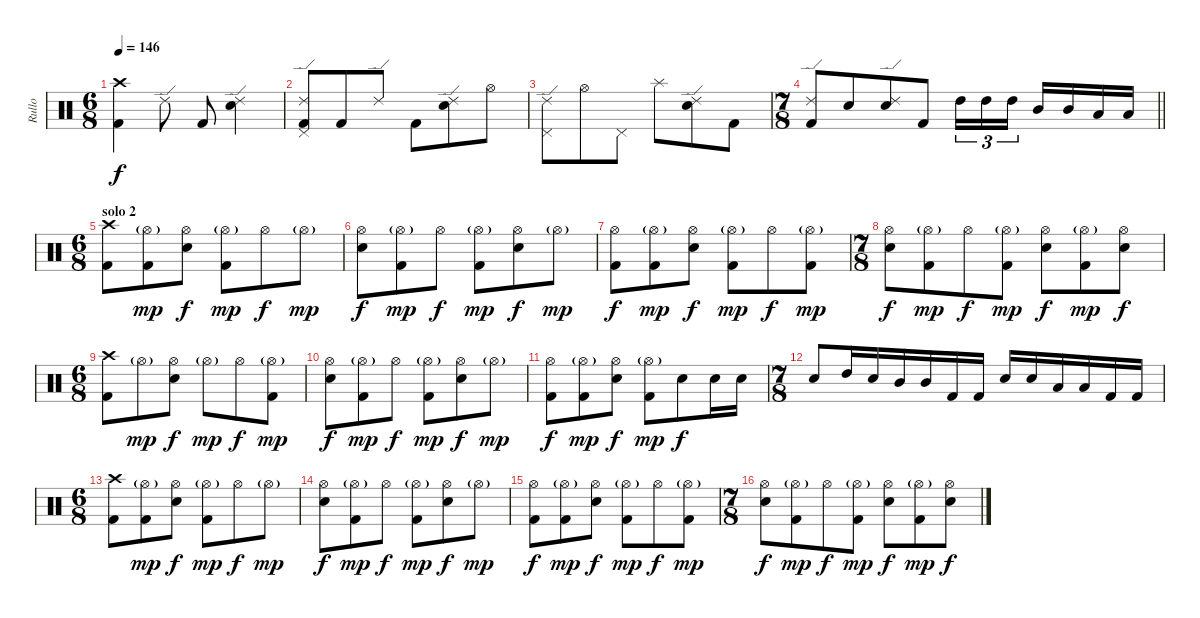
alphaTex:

\track ("Rullo" "Rullo") {instrument percussion}
\staff {score}
\articulation defaults
\ts (6 8)
\tempo 146
\clef neutral
\ks c
("Crash high (hit)" "Kick (hit) 2").4{dy f} "Ride (edge) 2".8 "Kick (hit) 2".8 ("Ride (edge) 2" "Electric Snare (hit)").4 |
("Ride (edge) 2" "Pedal Hi-Hat (hit)" "Kick (hit) 2").8 "Kick (hit) 2".8 "Ride (edge) 2".8 "Kick (hit) 2".8 ("Ride (edge) 2" "Electric Snare (hit)").8 "Hi-Hat (open)".8 |
("Ride (edge) 2" "Pedal Hi-Hat (hit)").8 "Hi-Hat (open)".8 "Pedal Hi-Hat (hit)".8 "Splash (hit)".8 ("Ride (edge) 2" "Electric Snare (hit)").8 "Kick (hit) 2".8 |
\ts (7 8)
\barLineRight lightlight
("Ride (edge) 2" "Kick (hit) 2").8 "Electric Snare (hit)".8 ("Ride (edge) 2" "Electric Snare (hit)").8 "Kick (hit) 2".8 "High Tom (hit)".16{tu (3 2)} "High Tom (hit)".16{tu (3 2)} "High Tom (hit)".16{tu (3 2)} "Mid Tom (hit)".16 "Mid Tom (hit)".16 "Low Tom (hit)".16 "Low Tom (hit)".16 |
\ts (6 8)
\section ("" "solo 2")
("Crash high (hit)" "Kick (hit) 2").8 ("Hi-Hat (open)"{g} "Kick (hit) 2").8{dy mp} ("Hi-Hat (open)" "Electric Snare (hit)").8{dy f} ("Hi-Hat (open)"{g} "Kick (hit) 2").8{dy mp} "Hi-Hat (open)".8{dy f} "Hi-Hat (open)"{g}.8{dy mp} |
("Hi-Hat (open)" "Electric Snare (hit)").8{dy f} ("Hi-Hat (open)"{g} "Kick (hit) 2").8{dy mp} "Hi-Hat (open)".8{dy f} ("Hi-Hat (open)"{g} "Kick (hit) 2").8{dy mp} ("Hi-Hat (open)" "Electric Snare (hit)").8{dy f} "Hi-Hat (open)"{g}.8{dy mp} |
("Hi-Hat (open)" "Kick (hit) 2").8{dy f} ("Hi-Hat (open)"{g} "Kick (hit) 2").8{dy mp} ("Hi-Hat (open)" "Electric Snare (hit)").8{dy f} ("Hi-Hat (open)"{g} "Kick (hit) 2").8{dy mp} "Hi-Hat (open)".8{dy f} ("Hi-Hat (open)"{g} "Kick (hit) 2").8{dy mp} |
\ts (7 8)
("Hi-Hat (open)" "Electric Snare (hit)").8{dy f} ("Hi-Hat (open)"{g} "Kick (hit) 2").8{dy mp} "Hi-Hat (open)".8{dy f} ("Hi-Hat (open)"{g} "Kick (hit) 2").8{dy mp} ("Hi-Hat (open)" "Electric Snare (hit)").8{dy f} ("Hi-Hat (open)"{g} "Kick (hit) 2").8{dy mp} ("Hi-Hat (open)" "Electric Snare (hit)").8{dy f} |
\ts (6 8)
("Crash high (hit)" "Kick (hit) 2").8 "Hi-Hat (open)"{g}.8{dy mp} ("Hi-Hat (open)" "Electric Snare (hit)").8{dy f} "Hi-Hat (open)"{g}.8{dy mp} "Hi-Hat (open)".8{dy f} ("Hi-Hat (open)"{g} "Kick (hit) 2").8{dy mp} |
("Hi-Hat (open)" "Electric Snare (hit)").8{dy f} ("Hi-Hat (open)"{g} "Kick (hit) 2").8{dy mp} "Hi-Hat (open)".8{dy f} ("Hi-Hat (open)"{g} "Kick (hit) 2").8{dy mp} ("Hi-Hat (open)" "Electric Snare (hit)").8{dy f} "Hi-Hat (open)"{g}.8{dy mp} |
("Hi-Hat (open)" "Kick (hit) 2").8{dy f} ("Hi-Hat (open)"{g} "Kick (hit) 2").8{dy mp} ("Hi-Hat (open)" "Electric Snare (hit)").8{dy f} ("Hi-Hat (open)"{g} "Kick (hit) 2").8{dy mp} "Electric Snare (hit)".8{dy f} "Electric Snare (hit)".16 "Electric Snare (hit)".16 |
\ts (7 8)
"Electric Snare (hit)".8 "High Tom (hit)".16 "Electric Snare (hit)".16 "Mid Tom (hit)".16 "Mid Tom (hit)".16 "Kick (hit) 2".16 "Kick (hit) 2".16 "Electric Snare (hit)".16 "Electric Snare (hit)".16 "Low Tom (hit)".16 "Low Tom (hit)".16 "Kick (hit) 2".16 "Kick (hit) 2".16 |
\ts (6 8)
("Crash high (hit)" "Kick (hit) 2").8 ("Hi-Hat (open)"{g} "Kick (hit) 2").8{dy mp} ("Hi-Hat (open)" "Electric Snare (hit)").8{dy f} ("Hi-Hat (open)"{g} "Kick (hit) 2").8{dy mp} "Hi-Hat (open)".8{dy f} "Hi-Hat (open)"{g}.8{dy mp} |
("Hi-Hat (open)" "Electric Snare (hit)").8{dy f} ("Hi-Hat (open)"{g} "Kick (hit) 2").8{dy mp} "Hi-Hat (open)".8{dy f} ("Hi-Hat (open)"{g} "Kick (hit) 2").8{dy mp} ("Hi-Hat (open)" "Electric Snare (hit)").8{dy f} "Hi-Hat (open)"{g}.8{dy mp} |
("Hi-Hat (open)" "Kick (hit) 2").8{dy f} ("Hi-Hat (open)"{g} "Kick (hit) 2").8{dy mp} ("Hi-Hat (open)" "Electric Snare (hit)").8{dy f} ("Hi-Hat (open)"{g} "Kick (hit) 2").8{dy mp} "Hi-Hat (open)".8{dy f} ("Hi-Hat (open)"{g} "Kick (hit) 2").8{dy mp} |
\ts (7 8)
("Hi-Hat (open)" "Electric Snare (hit)").8{dy f} ("Hi-Hat (open)"{g} "Kick (hit) 2").8{dy mp} "Hi-Hat (open)".8{dy f} ("Hi-Hat (open)"{g} "Kick (hit) 2").8{dy mp} ("Hi-Hat (open)" "Electric Snare (hit)").8{dy f} ("Hi-Hat (open)"{g} "Kick (hit) 2").8{dy mp} ("Hi-Hat (open)" "Electric Snare (hit)").8{dy f}
